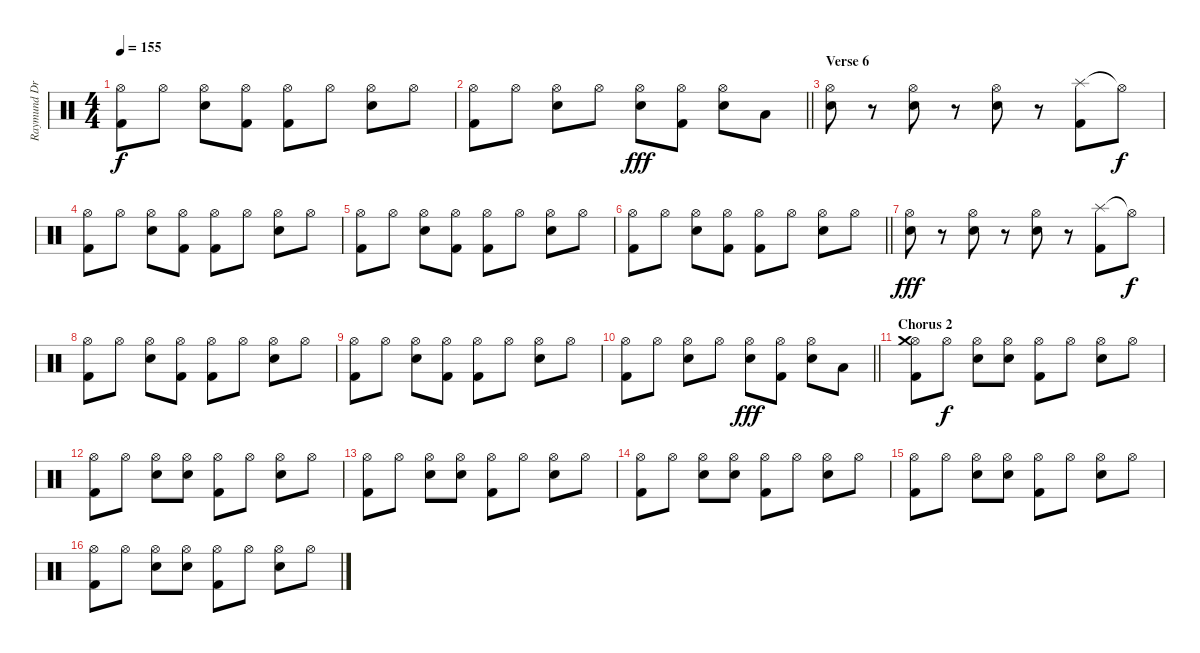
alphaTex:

\track ("Raymund Drums" "Raymund Dr") {instrument percussion}
\staff {score}
\articulation defaults
\ts (4 4)
\tempo 155
\clef neutral
\ks c
("Hi-Hat (open)" "Kick (hit) 2").8{dy f} "Hi-Hat (open)".8 ("Hi-Hat (open)" "Snare (hit) 2").8 ("Hi-Hat (open)" "Kick (hit) 2").8 ("Hi-Hat (open)" "Kick (hit) 2").8 "Hi-Hat (open)".8 ("Hi-Hat (open)" "Snare (hit) 2").8 "Hi-Hat (open)".8 |
\barLineRight lightlight
("Hi-Hat (open)" "Kick (hit) 2").8 "Hi-Hat (open)".8 ("Hi-Hat (open)" "Snare (hit) 2").8 "Hi-Hat (open)".8 ("Hi-Hat (open)" "Snare (hit) 2").8{dy fff} ("Hi-Hat (open)" "Kick (hit) 2").8 ("Hi-Hat (open)" "Snare (hit) 2").8 "Low Tom (hit)".8 |
\section ("" "Verse 6")
("Hi-Hat (open)" "Snare (hit) 2").8 r.8 ("Hi-Hat (open)" "Snare (hit) 2").8 r.8 ("Hi-Hat (open)" "Snare (hit) 2").8 r.8 ("Splash (hit)" "Kick (hit) 2").8 "Hi-Hat (open)"{t}.8{dy f} |
("Hi-Hat (open)" "Kick (hit) 2").8 "Hi-Hat (open)".8 ("Hi-Hat (open)" "Snare (hit) 2").8 ("Hi-Hat (open)" "Kick (hit) 2").8 ("Hi-Hat (open)" "Kick (hit) 2").8 "Hi-Hat (open)".8 ("Hi-Hat (open)" "Snare (hit) 2").8 "Hi-Hat (open)".8 |
("Hi-Hat (open)" "Kick (hit) 2").8 "Hi-Hat (open)".8 ("Hi-Hat (open)" "Snare (hit) 2").8 ("Hi-Hat (open)" "Kick (hit) 2").8 ("Hi-Hat (open)" "Kick (hit) 2").8 "Hi-Hat (open)".8 ("Hi-Hat (open)" "Snare (hit) 2").8 "Hi-Hat (open)".8 |
\barLineRight lightlight
("Hi-Hat (open)" "Kick (hit) 2").8 "Hi-Hat (open)".8 ("Hi-Hat (open)" "Snare (hit) 2").8 ("Hi-Hat (open)" "Kick (hit) 2").8 ("Hi-Hat (open)" "Kick (hit) 2").8 "Hi-Hat (open)".8 ("Hi-Hat (open)" "Snare (hit) 2").8 "Hi-Hat (open)".8 |
("Hi-Hat (open)" "Snare (hit) 2").8{dy fff} r.8 ("Hi-Hat (open)" "Snare (hit) 2").8 r.8 ("Hi-Hat (open)" "Snare (hit) 2").8 r.8 ("Splash (hit)" "Kick (hit) 2").8 "Hi-Hat (open)"{t}.8{dy f} |
("Hi-Hat (open)" "Kick (hit) 2").8 "Hi-Hat (open)".8 ("Hi-Hat (open)" "Snare (hit) 2").8 ("Hi-Hat (open)" "Kick (hit) 2").8 ("Hi-Hat (open)" "Kick (hit) 2").8 "Hi-Hat (open)".8 ("Hi-Hat (open)" "Snare (hit) 2").8 "Hi-Hat (open)".8 |
("Hi-Hat (open)" "Kick (hit) 2").8 "Hi-Hat (open)".8 ("Hi-Hat (open)" "Snare (hit) 2").8 ("Hi-Hat (open)" "Kick (hit) 2").8 ("Hi-Hat (open)" "Kick (hit) 2").8 "Hi-Hat (open)".8 ("Hi-Hat (open)" "Snare (hit) 2").8 "Hi-Hat (open)".8 |
\barLineRight lightlight
("Hi-Hat (open)" "Kick (hit) 2").8 "Hi-Hat (open)".8 ("Hi-Hat (open)" "Snare (hit) 2").8 "Hi-Hat (open)".8 ("Hi-Hat (open)" "Snare (hit) 2").8{dy fff} ("Hi-Hat (open)" "Kick (hit) 2").8 ("Hi-Hat (open)" "Snare (hit) 2").8 "Low Tom (hit)".8 |
\section ("" "Chorus 2")
("Hi-Hat (open)" "Kick (hit) 2" "Crash medium (hit)").8 "Hi-Hat (open)".8{dy f} ("Hi-Hat (open)" "Snare (hit) 2").8 ("Hi-Hat (open)" "Snare (hit) 2").8 ("Hi-Hat (open)" "Kick (hit) 2").8 "Hi-Hat (open)".8 ("Hi-Hat (open)" "Snare (hit) 2").8 "Hi-Hat (open)".8 |
("Hi-Hat (open)" "Kick (hit) 2").8 "Hi-Hat (open)".8 ("Hi-Hat (open)" "Snare (hit) 2").8 ("Hi-Hat (open)" "Snare (hit) 2").8 ("Hi-Hat (open)" "Kick (hit) 2").8 "Hi-Hat (open)".8 ("Hi-Hat (open)" "Snare (hit) 2").8 "Hi-Hat (open)".8 |
("Hi-Hat (open)" "Kick (hit) 2").8 "Hi-Hat (open)".8 ("Hi-Hat (open)" "Snare (hit) 2").8 ("Hi-Hat (open)" "Snare (hit) 2").8 ("Hi-Hat (open)" "Kick (hit) 2").8 "Hi-Hat (open)".8 ("Hi-Hat (open)" "Snare (hit) 2").8 "Hi-Hat (open)".8 |
("Hi-Hat (open)" "Kick (hit) 2").8 "Hi-Hat (open)".8 ("Hi-Hat (open)" "Snare (hit) 2").8 ("Hi-Hat (open)" "Snare (hit) 2").8 ("Hi-Hat (open)" "Kick (hit) 2").8 "Hi-Hat (open)".8 ("Hi-Hat (open)" "Snare (hit) 2").8 "Hi-Hat (open)".8 |
("Hi-Hat (open)" "Kick (hit) 2").8 "Hi-Hat (open)".8 ("Hi-Hat (open)" "Snare (hit) 2").8 ("Hi-Hat (open)" "Snare (hit) 2").8 ("Hi-Hat (open)" "Kick (hit) 2").8 "Hi-Hat (open)".8 ("Hi-Hat (open)" "Snare (hit) 2").8 "Hi-Hat (open)".8 |
("Hi-Hat (open)" "Kick (hit) 2").8 "Hi-Hat (open)".8 ("Hi-Hat (open)" "Snare (hit) 2").8 ("Hi-Hat (open)" "Snare (hit) 2").8 ("Hi-Hat (open)" "Kick (hit) 2").8 "Hi-Hat (open)".8 ("Hi-Hat (open)" "Snare (hit) 2").8 "Hi-Hat (open)".8
